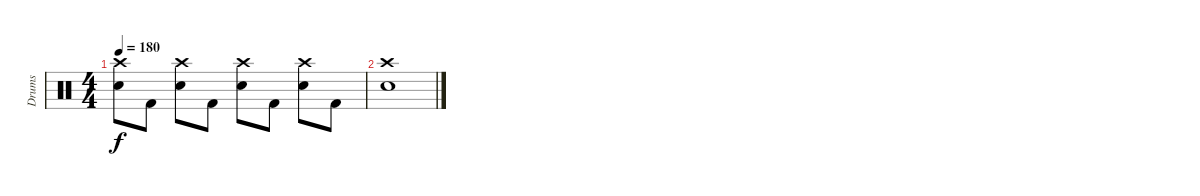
\track ("Drums" "Drums") {instrument percussion}
\staff {score}
\articulation defaults
\ts (4 4)
\tempo 180
\clef neutral
\ks c
("Crash high (hit)" "Snare (hit) 2").8{dy f} "Kick (hit) 2".8 ("Crash high (hit)" "Snare (hit) 2").8 "Kick (hit) 2".8 ("Crash high (hit)" "Snare (hit) 2").8 "Kick (hit) 2".8 ("Crash high (hit)" "Snare (hit) 2").8 "Kick (hit) 2".8 |
("Crash high (hit)" "Snare (hit) 2").1
